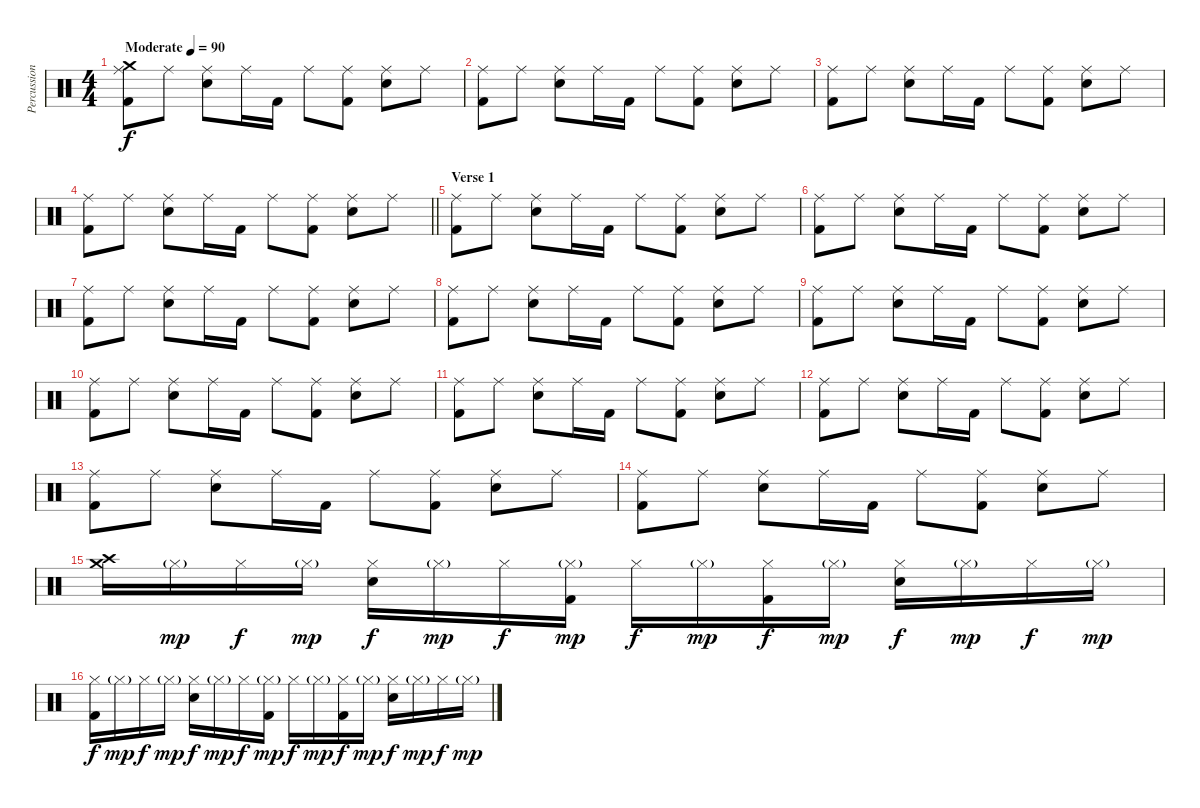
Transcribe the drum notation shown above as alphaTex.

\track ("Percussion" "Percussion") {instrument percussion}
\staff {score}
\articulation defaults
\ts (4 4)
\tempo (90 "Moderate")
\clef neutral
\ks c
("Ride (middle)" "Crash medium (hit)" "Kick (hit) 2").8{dy f} "Ride (middle)".8 ("Ride (middle)" "Electric Snare (hit)").8 "Ride (middle)".16 "Kick (hit) 2".16 "Ride (middle)".8 ("Ride (middle)" "Kick (hit) 2").8 ("Ride (middle)" "Electric Snare (hit)").8 "Ride (middle)".8 |
("Ride (middle)" "Kick (hit) 2").8 "Ride (middle)".8 ("Ride (middle)" "Electric Snare (hit)").8 "Ride (middle)".16 "Kick (hit) 2".16 "Ride (middle)".8 ("Ride (middle)" "Kick (hit) 2").8 ("Ride (middle)" "Electric Snare (hit)").8 "Ride (middle)".8 |
("Ride (middle)" "Kick (hit) 2").8 "Ride (middle)".8 ("Ride (middle)" "Electric Snare (hit)").8 "Ride (middle)".16 "Kick (hit) 2".16 "Ride (middle)".8 ("Ride (middle)" "Kick (hit) 2").8 ("Ride (middle)" "Electric Snare (hit)").8 "Ride (middle)".8 |
\barLineRight lightlight
("Ride (middle)" "Kick (hit) 2").8 "Ride (middle)".8 ("Ride (middle)" "Electric Snare (hit)").8 "Ride (middle)".16 "Kick (hit) 2".16 "Ride (middle)".8 ("Ride (middle)" "Kick (hit) 2").8 ("Ride (middle)" "Electric Snare (hit)").8 "Ride (middle)".8 |
\section ("" "Verse 1")
("Ride (middle)" "Kick (hit) 2").8 "Ride (middle)".8 ("Ride (middle)" "Electric Snare (hit)").8 "Ride (middle)".16 "Kick (hit) 2".16 "Ride (middle)".8 ("Ride (middle)" "Kick (hit) 2").8 ("Ride (middle)" "Electric Snare (hit)").8 "Ride (middle)".8 |
("Ride (middle)" "Kick (hit) 2").8 "Ride (middle)".8 ("Ride (middle)" "Electric Snare (hit)").8 "Ride (middle)".16 "Kick (hit) 2".16 "Ride (middle)".8 ("Ride (middle)" "Kick (hit) 2").8 ("Ride (middle)" "Electric Snare (hit)").8 "Ride (middle)".8 |
("Ride (middle)" "Kick (hit) 2").8 "Ride (middle)".8 ("Ride (middle)" "Electric Snare (hit)").8 "Ride (middle)".16 "Kick (hit) 2".16 "Ride (middle)".8 ("Ride (middle)" "Kick (hit) 2").8 ("Ride (middle)" "Electric Snare (hit)").8 "Ride (middle)".8 |
("Ride (middle)" "Kick (hit) 2").8 "Ride (middle)".8 ("Ride (middle)" "Electric Snare (hit)").8 "Ride (middle)".16 "Kick (hit) 2".16 "Ride (middle)".8 ("Ride (middle)" "Kick (hit) 2").8 ("Ride (middle)" "Electric Snare (hit)").8 "Ride (middle)".8 |
("Ride (middle)" "Kick (hit) 2").8 "Ride (middle)".8 ("Ride (middle)" "Electric Snare (hit)").8 "Ride (middle)".16 "Kick (hit) 2".16 "Ride (middle)".8 ("Ride (middle)" "Kick (hit) 2").8 ("Ride (middle)" "Electric Snare (hit)").8 "Ride (middle)".8 |
("Ride (middle)" "Kick (hit) 2").8 "Ride (middle)".8 ("Ride (middle)" "Electric Snare (hit)").8 "Ride (middle)".16 "Kick (hit) 2".16 "Ride (middle)".8 ("Ride (middle)" "Kick (hit) 2").8 ("Ride (middle)" "Electric Snare (hit)").8 "Ride (middle)".8 |
("Ride (middle)" "Kick (hit) 2").8 "Ride (middle)".8 ("Ride (middle)" "Electric Snare (hit)").8 "Ride (middle)".16 "Kick (hit) 2".16 "Ride (middle)".8 ("Ride (middle)" "Kick (hit) 2").8 ("Ride (middle)" "Electric Snare (hit)").8 "Ride (middle)".8 |
("Ride (middle)" "Kick (hit) 2").8 "Ride (middle)".8 ("Ride (middle)" "Electric Snare (hit)").8 "Ride (middle)".16 "Kick (hit) 2".16 "Ride (middle)".8 ("Ride (middle)" "Kick (hit) 2").8 ("Ride (middle)" "Electric Snare (hit)").8 "Ride (middle)".8 |
("Ride (middle)" "Kick (hit) 2").8 "Ride (middle)".8 ("Ride (middle)" "Electric Snare (hit)").8 "Ride (middle)".16 "Kick (hit) 2".16 "Ride (middle)".8 ("Ride (middle)" "Kick (hit) 2").8 ("Ride (middle)" "Electric Snare (hit)").8 "Ride (middle)".8 |
("Ride (middle)" "Kick (hit) 2").8 "Ride (middle)".8 ("Ride (middle)" "Electric Snare (hit)").8 "Ride (middle)".16 "Kick (hit) 2".16 "Ride (middle)".8 ("Ride (middle)" "Kick (hit) 2").8 ("Ride (middle)" "Electric Snare (hit)").8 "Ride (middle)".8 |
("Crash medium (hit)" "Crash high (hit)").16 "Hi-Hat (closed)"{g}.16{dy mp} "Hi-Hat (closed)".16{dy f} "Hi-Hat (closed)"{g}.16{dy mp} ("Hi-Hat (closed)" "Electric Snare (hit)").16{dy f} "Hi-Hat (closed)"{g}.16{dy mp} "Hi-Hat (closed)".16{dy f} ("Hi-Hat (closed)"{g} "Kick (hit) 2").16{dy mp} "Hi-Hat (closed)".16{dy f} "Hi-Hat (closed)"{g}.16{dy mp} ("Hi-Hat (closed)" "Kick (hit) 2").16{dy f} "Hi-Hat (closed)"{g}.16{dy mp} ("Hi-Hat (closed)" "Electric Snare (hit)").16{dy f} "Hi-Hat (closed)"{g}.16{dy mp} "Hi-Hat (closed)".16{dy f} "Hi-Hat (closed)"{g}.16{dy mp} |
("Hi-Hat (closed)" "Kick (hit) 2").16{dy f} "Hi-Hat (closed)"{g}.16{dy mp} "Hi-Hat (closed)".16{dy f} "Hi-Hat (closed)"{g}.16{dy mp} ("Hi-Hat (closed)" "Electric Snare (hit)").16{dy f} "Hi-Hat (closed)"{g}.16{dy mp} "Hi-Hat (closed)".16{dy f} ("Hi-Hat (closed)"{g} "Kick (hit) 2").16{dy mp} "Hi-Hat (closed)".16{dy f} "Hi-Hat (closed)"{g}.16{dy mp} ("Hi-Hat (closed)" "Kick (hit) 2").16{dy f} "Hi-Hat (closed)"{g}.16{dy mp} ("Hi-Hat (closed)" "Electric Snare (hit)").16{dy f} "Hi-Hat (closed)"{g}.16{dy mp} "Hi-Hat (closed)".16{dy f} "Hi-Hat (closed)"{g}.16{dy mp}
